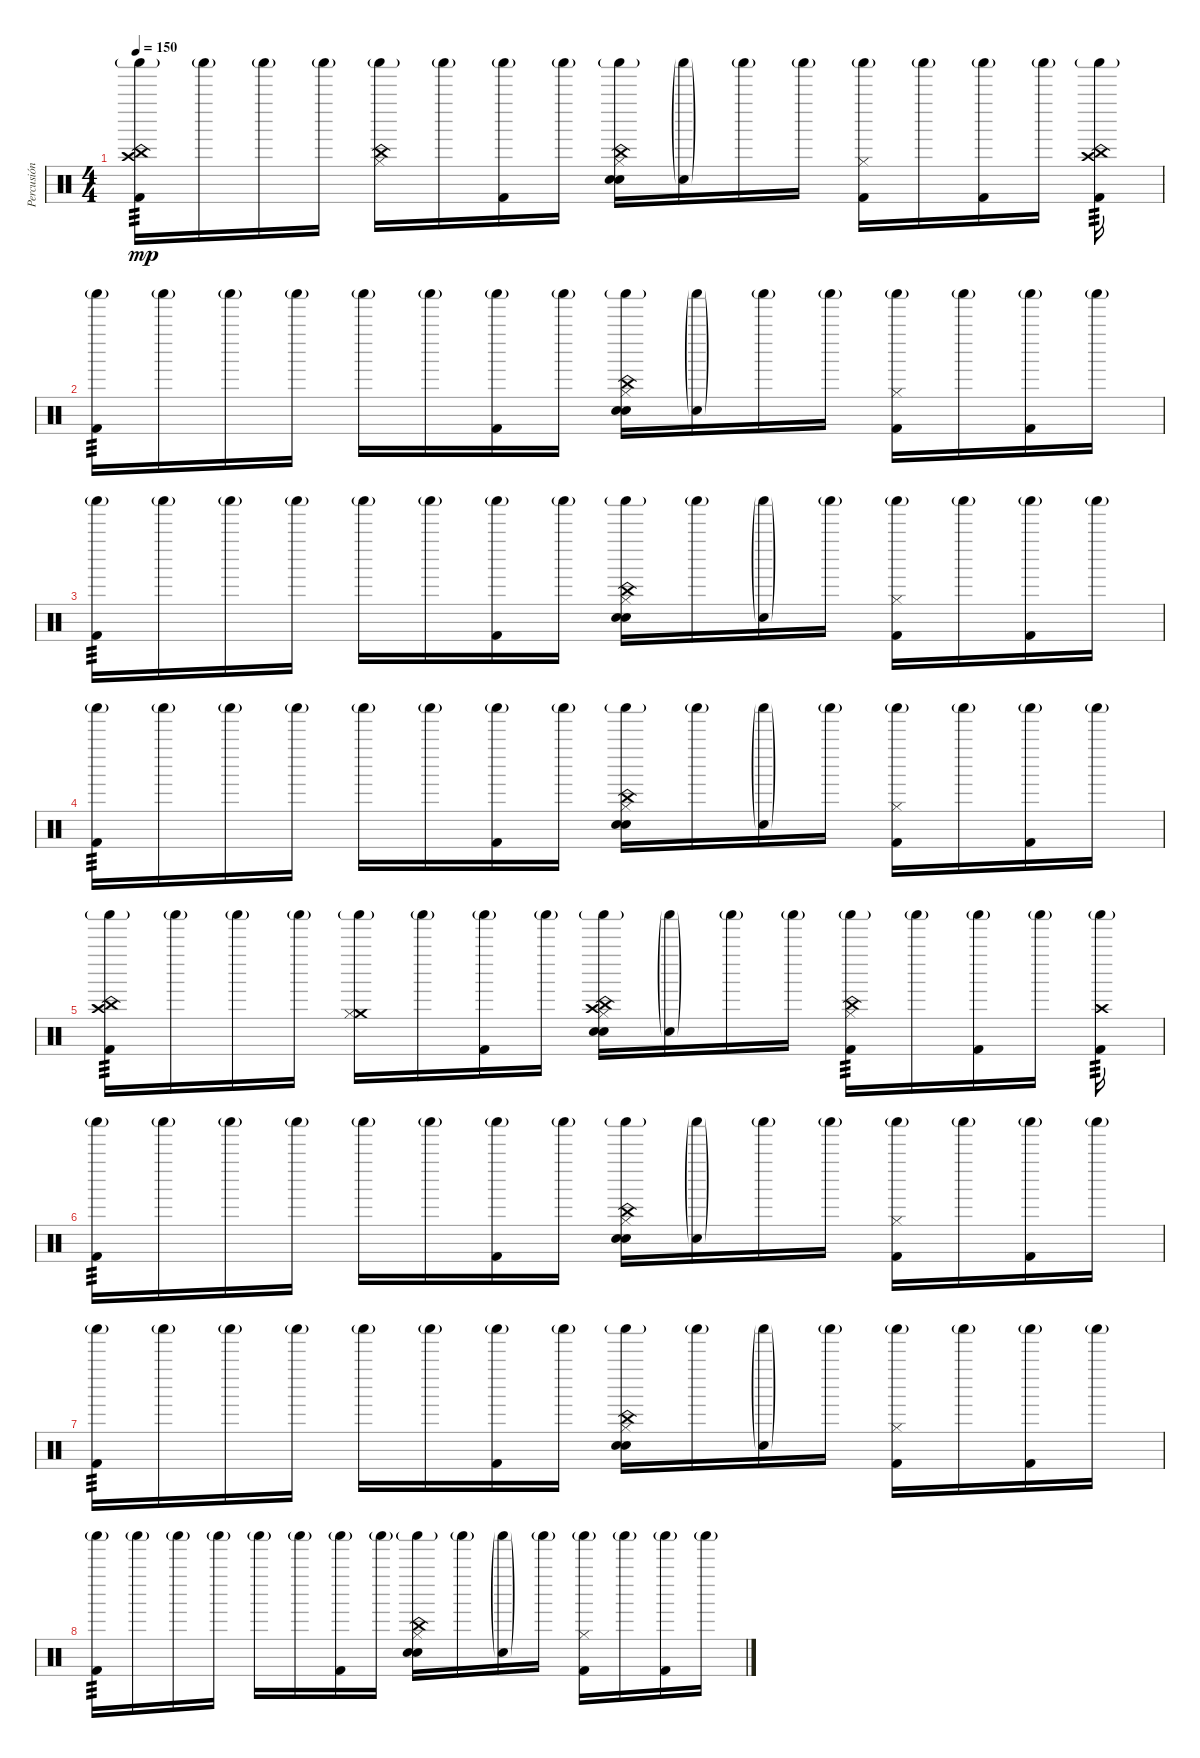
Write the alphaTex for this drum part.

\track ("Percusión" "Percusión") {instrument percussion}
\staff {score}
\articulation defaults
\ts (4 4)
\tempo 150
\clef neutral
\ks c
("China (hit)" "Crash high (hit)" "Shaker (hit)"{g} "Kick (hit) 2").16{tp 3 dy mp} "Shaker (hit)"{g}.16 "Shaker (hit)"{g}.16 "Shaker (hit)"{g}.16 ("China (hit)" "Hi-Hat (closed)" "Shaker (hit)"{g}).16 "Shaker (hit)"{g}.16 ("Shaker (hit)"{g} "Kick (hit) 2").16 "Shaker (hit)"{g}.16 ("China (hit)" "Hand Clap (hit)" "Hi-Hat (closed)" "Shaker (hit)"{g} "Electric Snare (hit)").16 ("Hand Clap (hit)"{g} "Shaker (hit)"{g}).16 "Shaker (hit)"{g}.16 "Shaker (hit)"{g}.16 ("Hi-Hat (closed)" "Shaker (hit)"{g} "Kick (hit) 2").16 "Shaker (hit)"{g}.16 ("Shaker (hit)"{g} "Kick (hit) 2").16 "Shaker (hit)"{g}.16 ("China (hit)" "Crash high (hit)" "Shaker (hit)"{g} "Kick (hit) 2").16{tp 3} |
("Shaker (hit)"{g} "Kick (hit) 2").16{tp 3} "Shaker (hit)"{g}.16 "Shaker (hit)"{g}.16 "Shaker (hit)"{g}.16 "Shaker (hit)"{g}.16 "Shaker (hit)"{g}.16 ("Shaker (hit)"{g} "Kick (hit) 2").16 "Shaker (hit)"{g}.16 ("China (hit)" "Hand Clap (hit)" "Hi-Hat (closed)" "Shaker (hit)"{g} "Electric Snare (hit)").16 ("Hand Clap (hit)"{g} "Shaker (hit)"{g}).16 "Shaker (hit)"{g}.16 "Shaker (hit)"{g}.16 ("Hi-Hat (closed)" "Shaker (hit)"{g} "Kick (hit) 2").16 "Shaker (hit)"{g}.16 ("Shaker (hit)"{g} "Kick (hit) 2").16 "Shaker (hit)"{g}.16 |
("Shaker (hit)"{g} "Kick (hit) 2").16{tp 3} "Shaker (hit)"{g}.16 "Shaker (hit)"{g}.16 "Shaker (hit)"{g}.16 "Shaker (hit)"{g}.16 "Shaker (hit)"{g}.16 ("Shaker (hit)"{g} "Kick (hit) 2").16 "Shaker (hit)"{g}.16 ("China (hit)" "Hand Clap (hit)" "Hi-Hat (closed)" "Shaker (hit)"{g} "Electric Snare (hit)").16 "Shaker (hit)"{g}.16 ("Hand Clap (hit)"{g} "Shaker (hit)"{g}).16 "Shaker (hit)"{g}.16 ("Hi-Hat (closed)" "Shaker (hit)"{g} "Kick (hit) 2").16 "Shaker (hit)"{g}.16 ("Shaker (hit)"{g} "Kick (hit) 2").16 "Shaker (hit)"{g}.16 |
("Shaker (hit)"{g} "Kick (hit) 2").16{tp 3} "Shaker (hit)"{g}.16 "Shaker (hit)"{g}.16 "Shaker (hit)"{g}.16 "Shaker (hit)"{g}.16 "Shaker (hit)"{g}.16 ("Shaker (hit)"{g} "Kick (hit) 2").16 "Shaker (hit)"{g}.16 ("China (hit)" "Hand Clap (hit)" "Hi-Hat (closed)" "Shaker (hit)"{g} "Electric Snare (hit)").16 "Shaker (hit)"{g}.16 ("Hand Clap (hit)"{g} "Shaker (hit)"{g}).16 "Shaker (hit)"{g}.16 ("Hi-Hat (closed)" "Shaker (hit)"{g} "Kick (hit) 2").16 "Shaker (hit)"{g}.16 ("Shaker (hit)"{g} "Kick (hit) 2").16 "Shaker (hit)"{g}.16 |
("China (hit)" "Crash high (hit)" "Shaker (hit)"{g} "Kick (hit) 2").16{tp 3} "Shaker (hit)"{g}.16 "Shaker (hit)"{g}.16 "Shaker (hit)"{g}.16 ("Crash medium (hit)" "Hi-Hat (closed)" "Shaker (hit)"{g}).16 "Shaker (hit)"{g}.16 ("Shaker (hit)"{g} "Kick (hit) 2").16 "Shaker (hit)"{g}.16 ("Crash high (hit)" "China (hit)" "Hand Clap (hit)" "Hi-Hat (closed)" "Shaker (hit)"{g} "Electric Snare (hit)").16 ("Hand Clap (hit)"{g} "Shaker (hit)"{g}).16 "Shaker (hit)"{g}.16 "Shaker (hit)"{g}.16 ("China (hit)" "Hi-Hat (closed)" "Shaker (hit)"{g} "Kick (hit) 2").16{tp 3} "Shaker (hit)"{g}.16 ("Shaker (hit)"{g} "Kick (hit) 2").16 "Shaker (hit)"{g}.16 ("Crash high (hit)" "Shaker (hit)"{g} "Kick (hit) 2").16{tp 3} |
("Shaker (hit)"{g} "Kick (hit) 2").16{tp 3} "Shaker (hit)"{g}.16 "Shaker (hit)"{g}.16 "Shaker (hit)"{g}.16 "Shaker (hit)"{g}.16 "Shaker (hit)"{g}.16 ("Shaker (hit)"{g} "Kick (hit) 2").16 "Shaker (hit)"{g}.16 ("China (hit)" "Hand Clap (hit)" "Hi-Hat (closed)" "Shaker (hit)"{g} "Electric Snare (hit)").16 ("Hand Clap (hit)"{g} "Shaker (hit)"{g}).16 "Shaker (hit)"{g}.16 "Shaker (hit)"{g}.16 ("Hi-Hat (closed)" "Shaker (hit)"{g} "Kick (hit) 2").16 "Shaker (hit)"{g}.16 ("Shaker (hit)"{g} "Kick (hit) 2").16 "Shaker (hit)"{g}.16 |
("Shaker (hit)"{g} "Kick (hit) 2").16{tp 3} "Shaker (hit)"{g}.16 "Shaker (hit)"{g}.16 "Shaker (hit)"{g}.16 "Shaker (hit)"{g}.16 "Shaker (hit)"{g}.16 ("Shaker (hit)"{g} "Kick (hit) 2").16 "Shaker (hit)"{g}.16 ("China (hit)" "Hand Clap (hit)" "Hi-Hat (closed)" "Shaker (hit)"{g} "Electric Snare (hit)").16 "Shaker (hit)"{g}.16 ("Hand Clap (hit)"{g} "Shaker (hit)"{g}).16 "Shaker (hit)"{g}.16 ("Hi-Hat (closed)" "Shaker (hit)"{g} "Kick (hit) 2").16 "Shaker (hit)"{g}.16 ("Shaker (hit)"{g} "Kick (hit) 2").16 "Shaker (hit)"{g}.16 |
("Shaker (hit)"{g} "Kick (hit) 2").16{tp 3} "Shaker (hit)"{g}.16 "Shaker (hit)"{g}.16 "Shaker (hit)"{g}.16 "Shaker (hit)"{g}.16 "Shaker (hit)"{g}.16 ("Shaker (hit)"{g} "Kick (hit) 2").16 "Shaker (hit)"{g}.16 ("China (hit)" "Hand Clap (hit)" "Hi-Hat (closed)" "Shaker (hit)"{g} "Electric Snare (hit)").16 "Shaker (hit)"{g}.16 ("Hand Clap (hit)"{g} "Shaker (hit)"{g}).16 "Shaker (hit)"{g}.16 ("Hi-Hat (closed)" "Shaker (hit)"{g} "Kick (hit) 2").16 "Shaker (hit)"{g}.16 ("Shaker (hit)"{g} "Kick (hit) 2").16 "Shaker (hit)"{g}.16
